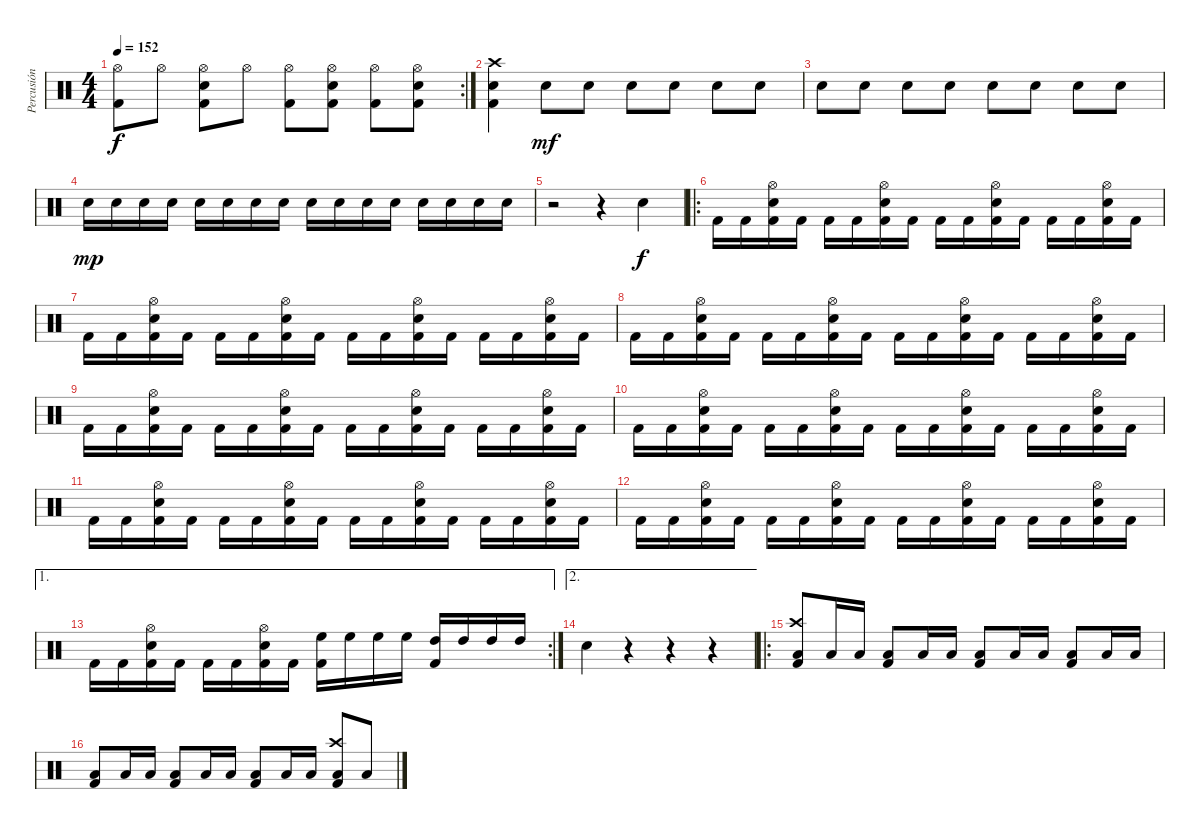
\track ("Percusión" "Percusión") {instrument percussion}
\staff {score}
\articulation defaults
\rc 2
\ts (4 4)
\tempo 152
\clef neutral
\ks c
("Hi-Hat (open)" "Kick (hit) 2").8{dy f} "Hi-Hat (open)".8 ("Hi-Hat (open)" "Snare (hit) 2" "Kick (hit) 2").8 "Hi-Hat (open)".8 ("Hi-Hat (open)" "Kick (hit) 2").8 ("Hi-Hat (open)" "Snare (hit) 2" "Kick (hit) 2").8 ("Hi-Hat (open)" "Kick (hit) 2").8 ("Hi-Hat (open)" "Snare (hit) 2" "Kick (hit) 2").8 |
("Crash high (hit)" "Snare (hit) 2" "Kick (hit) 2").4 "Snare (hit) 2".8{dy mf} "Snare (hit) 2".8 "Snare (hit) 2".8 "Snare (hit) 2".8 "Snare (hit) 2".8 "Snare (hit) 2".8 |
"Snare (hit) 2".8 "Snare (hit) 2".8 "Snare (hit) 2".8 "Snare (hit) 2".8 "Snare (hit) 2".8 "Snare (hit) 2".8 "Snare (hit) 2".8 "Snare (hit) 2".8 |
"Snare (hit) 2".16{dy mp} "Snare (hit) 2".16 "Snare (hit) 2".16 "Snare (hit) 2".16 "Snare (hit) 2".16 "Snare (hit) 2".16 "Snare (hit) 2".16 "Snare (hit) 2".16 "Snare (hit) 2".16 "Snare (hit) 2".16 "Snare (hit) 2".16 "Snare (hit) 2".16 "Snare (hit) 2".16 "Snare (hit) 2".16 "Snare (hit) 2".16 "Snare (hit) 2".16 |
r.2 r.4 "Snare (hit) 2".4{dy f} |
\ro "Kick (hit) 2".16 "Kick (hit) 2".16
("Hi-Hat (open)" "Snare (hit) 2" "Kick (hit) 2").16 "Kick (hit) 2".16 "Kick (hit) 2".16 "Kick (hit) 2".16 ("Hi-Hat (open)" "Snare (hit) 2" "Kick (hit) 2").16 "Kick (hit) 2".16 "Kick (hit) 2".16 "Kick (hit) 2".16 ("Hi-Hat (open)" "Snare (hit) 2" "Kick (hit) 2").16 "Kick (hit) 2".16 "Kick (hit) 2".16 "Kick (hit) 2".16 ("Hi-Hat (open)" "Snare (hit) 2" "Kick (hit) 2").16 "Kick (hit) 2".16 |
"Kick (hit) 2".16 "Kick (hit) 2".16 ("Hi-Hat (open)" "Snare (hit) 2" "Kick (hit) 2").16 "Kick (hit) 2".16 "Kick (hit) 2".16 "Kick (hit) 2".16 ("Hi-Hat (open)" "Snare (hit) 2" "Kick (hit) 2").16 "Kick (hit) 2".16 "Kick (hit) 2".16 "Kick (hit) 2".16 ("Hi-Hat (open)" "Snare (hit) 2" "Kick (hit) 2").16 "Kick (hit) 2".16 "Kick (hit) 2".16 "Kick (hit) 2".16 ("Hi-Hat (open)" "Snare (hit) 2" "Kick (hit) 2").16 "Kick (hit) 2".16 |
"Kick (hit) 2".16 "Kick (hit) 2".16 ("Hi-Hat (open)" "Snare (hit) 2" "Kick (hit) 2").16 "Kick (hit) 2".16 "Kick (hit) 2".16 "Kick (hit) 2".16 ("Hi-Hat (open)" "Snare (hit) 2" "Kick (hit) 2").16 "Kick (hit) 2".16 "Kick (hit) 2".16 "Kick (hit) 2".16 ("Hi-Hat (open)" "Snare (hit) 2" "Kick (hit) 2").16 "Kick (hit) 2".16 "Kick (hit) 2".16 "Kick (hit) 2".16 ("Hi-Hat (open)" "Snare (hit) 2" "Kick (hit) 2").16 "Kick (hit) 2".16 |
"Kick (hit) 2".16 "Kick (hit) 2".16 ("Hi-Hat (open)" "Snare (hit) 2" "Kick (hit) 2").16 "Kick (hit) 2".16 "Kick (hit) 2".16 "Kick (hit) 2".16 ("Hi-Hat (open)" "Snare (hit) 2" "Kick (hit) 2").16 "Kick (hit) 2".16 "Kick (hit) 2".16 "Kick (hit) 2".16 ("Hi-Hat (open)" "Snare (hit) 2" "Kick (hit) 2").16 "Kick (hit) 2".16 "Kick (hit) 2".16 "Kick (hit) 2".16 ("Hi-Hat (open)" "Snare (hit) 2" "Kick (hit) 2").16 "Kick (hit) 2".16 |
"Kick (hit) 2".16 "Kick (hit) 2".16 ("Hi-Hat (open)" "Snare (hit) 2" "Kick (hit) 2").16 "Kick (hit) 2".16 "Kick (hit) 2".16 "Kick (hit) 2".16 ("Hi-Hat (open)" "Snare (hit) 2" "Kick (hit) 2").16 "Kick (hit) 2".16 "Kick (hit) 2".16 "Kick (hit) 2".16 ("Hi-Hat (open)" "Snare (hit) 2" "Kick (hit) 2").16 "Kick (hit) 2".16 "Kick (hit) 2".16 "Kick (hit) 2".16 ("Hi-Hat (open)" "Snare (hit) 2" "Kick (hit) 2").16 "Kick (hit) 2".16 |
"Kick (hit) 2".16 "Kick (hit) 2".16 ("Hi-Hat (open)" "Snare (hit) 2" "Kick (hit) 2").16 "Kick (hit) 2".16 "Kick (hit) 2".16 "Kick (hit) 2".16 ("Hi-Hat (open)" "Snare (hit) 2" "Kick (hit) 2").16 "Kick (hit) 2".16 "Kick (hit) 2".16 "Kick (hit) 2".16 ("Hi-Hat (open)" "Snare (hit) 2" "Kick (hit) 2").16 "Kick (hit) 2".16 "Kick (hit) 2".16 "Kick (hit) 2".16 ("Hi-Hat (open)" "Snare (hit) 2" "Kick (hit) 2").16 "Kick (hit) 2".16 |
"Kick (hit) 2".16 "Kick (hit) 2".16 ("Hi-Hat (open)" "Snare (hit) 2" "Kick (hit) 2").16 "Kick (hit) 2".16 "Kick (hit) 2".16 "Kick (hit) 2".16 ("Hi-Hat (open)" "Snare (hit) 2" "Kick (hit) 2").16 "Kick (hit) 2".16 "Kick (hit) 2".16 "Kick (hit) 2".16 ("Hi-Hat (open)" "Snare (hit) 2" "Kick (hit) 2").16 "Kick (hit) 2".16 "Kick (hit) 2".16 "Kick (hit) 2".16 ("Hi-Hat (open)" "Snare (hit) 2" "Kick (hit) 2").16 "Kick (hit) 2".16 |
\ae 1
\rc 2 "Kick (hit) 2".16 "Kick (hit) 2".16
("Hi-Hat (open)" "Snare (hit) 2" "Kick (hit) 2").16 "Kick (hit) 2".16 "Kick (hit) 2".16 "Kick (hit) 2".16 ("Hi-Hat (open)" "Snare (hit) 2" "Kick (hit) 2").16 "Kick (hit) 2".16 ("Kick (hit) 2" "High Floor Tom (hit)").16 "High Floor Tom (hit)".16 "High Floor Tom (hit)".16 "High Floor Tom (hit)".16 ("Kick (hit) 2" "High Tom (hit)").16 "High Tom (hit)".16 "High Tom (hit)".16 "High Tom (hit)".16 |
\ae 2 "Snare (hit) 2".4
r.4 r.4 r.4 |
\ro
("Crash high (hit)" "Kick (hit) 2" "Low Floor Tom (hit)").8 "Low Floor Tom (hit)".16 "Low Floor Tom (hit)".16 ("Kick (hit) 2" "Low Floor Tom (hit)").8 "Low Floor Tom (hit)".16 "Low Floor Tom (hit)".16 ("Kick (hit) 2" "Low Floor Tom (hit)").8 "Low Floor Tom (hit)".16 "Low Floor Tom (hit)".16 ("Kick (hit) 2" "Low Floor Tom (hit)").8 "Low Floor Tom (hit)".16 "Low Floor Tom (hit)".16 |
("Kick (hit) 2" "Low Floor Tom (hit)").8 "Low Floor Tom (hit)".16 "Low Floor Tom (hit)".16 ("Kick (hit) 2" "Low Floor Tom (hit)").8 "Low Floor Tom (hit)".16 "Low Floor Tom (hit)".16 ("Kick (hit) 2" "Low Floor Tom (hit)").8 "Low Floor Tom (hit)".16 "Low Floor Tom (hit)".16 ("Crash high (hit)" "Kick (hit) 2" "Low Floor Tom (hit)").8 "Low Floor Tom (hit)".8
